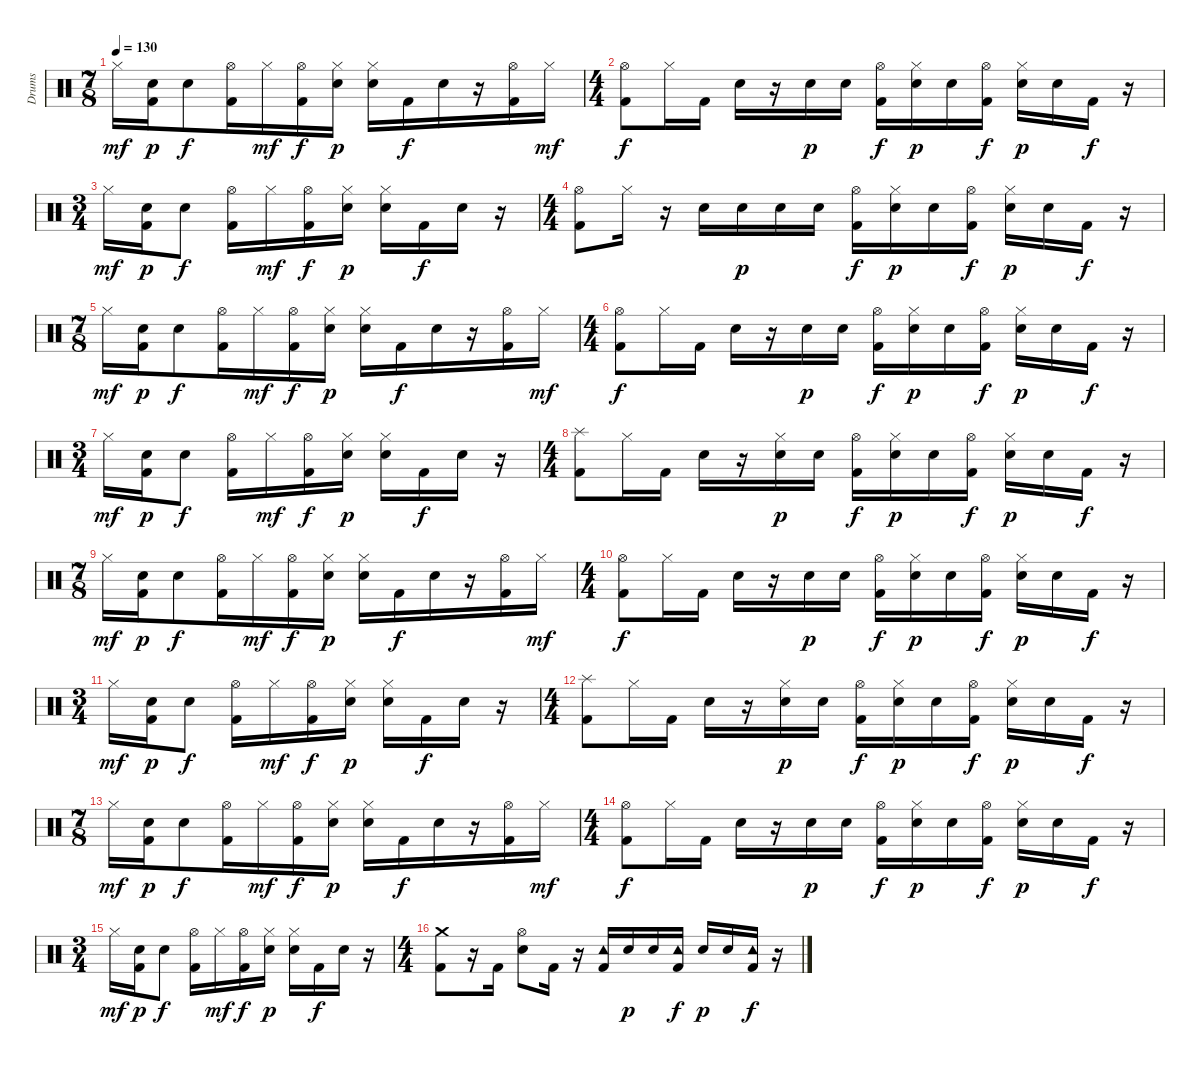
\track ("Drums" "Drums") {instrument percussion}
\staff {score}
\articulation defaults
\ts (7 8)
\tempo 130
\clef neutral
\ks c "Hi-Hat (closed)".16{dy mf}
("Kick (hit) 2" "Electric Snare (hit)").16{dy p} "Electric Snare (hit)".8{dy f} ("Kick (hit) 2" "Hi-Hat (open)").16 "Hi-Hat (closed)".16{dy mf} ("Kick (hit) 2" "Hi-Hat (open)").16{dy f} ("Hi-Hat (closed)" "Electric Snare (hit)").16{dy p} ("Hi-Hat (closed)" "Electric Snare (hit)").16 "Kick (hit) 2".16{dy f} "Electric Snare (hit)".16 r.16 ("Kick (hit) 2" "Hi-Hat (open)").16 "Hi-Hat (closed)".16{dy mf} |
\ts (4 4)
("Hi-Hat (open)" "Kick (hit) 2").8{dy f} "Hi-Hat (closed)".16 "Kick (hit) 2".16 "Electric Snare (hit)".16 r.16 "Electric Snare (hit)".16{dy p} "Electric Snare (hit)".16 ("Kick (hit) 2" "Hi-Hat (open)").16{dy f} ("Hi-Hat (closed)" "Electric Snare (hit)").16{dy p} "Electric Snare (hit)".16 ("Kick (hit) 2" "Hi-Hat (open)").16{dy f} ("Hi-Hat (closed)" "Electric Snare (hit)").16{dy p} "Electric Snare (hit)".16 "Kick (hit) 2".16{dy f} r.16 |
\ts (3 4)
"Hi-Hat (closed)".16{dy mf} ("Kick (hit) 2" "Electric Snare (hit)").16{dy p} "Electric Snare (hit)".8{dy f} ("Kick (hit) 2" "Hi-Hat (open)").16 "Hi-Hat (closed)".16{dy mf} ("Kick (hit) 2" "Hi-Hat (open)").16{dy f} ("Hi-Hat (closed)" "Electric Snare (hit)").16{dy p} ("Hi-Hat (closed)" "Electric Snare (hit)").16 "Kick (hit) 2".16{dy f} "Electric Snare (hit)".16 r.16 |
\ts (4 4)
("Hi-Hat (open)" "Kick (hit) 2").8 "Hi-Hat (closed)".16 r.16 "Electric Snare (hit)".16 "Electric Snare (hit)".16{dy p} "Electric Snare (hit)".16 "Electric Snare (hit)".16 ("Kick (hit) 2" "Hi-Hat (open)").16{dy f} ("Hi-Hat (closed)" "Electric Snare (hit)").16{dy p} "Electric Snare (hit)".16 ("Kick (hit) 2" "Hi-Hat (open)").16{dy f} ("Hi-Hat (closed)" "Electric Snare (hit)").16{dy p} "Electric Snare (hit)".16 "Kick (hit) 2".16{dy f} r.16 |
\ts (7 8)
"Hi-Hat (closed)".16{dy mf} ("Kick (hit) 2" "Electric Snare (hit)").16{dy p} "Electric Snare (hit)".8{dy f} ("Kick (hit) 2" "Hi-Hat (open)").16 "Hi-Hat (closed)".16{dy mf} ("Kick (hit) 2" "Hi-Hat (open)").16{dy f} ("Hi-Hat (closed)" "Electric Snare (hit)").16{dy p} ("Hi-Hat (closed)" "Electric Snare (hit)").16 "Kick (hit) 2".16{dy f} "Electric Snare (hit)".16 r.16 ("Kick (hit) 2" "Hi-Hat (open)").16 "Hi-Hat (closed)".16{dy mf} |
\ts (4 4)
("Hi-Hat (open)" "Kick (hit) 2").8{dy f} "Hi-Hat (closed)".16 "Kick (hit) 2".16 "Electric Snare (hit)".16 r.16 "Electric Snare (hit)".16{dy p} "Electric Snare (hit)".16 ("Kick (hit) 2" "Hi-Hat (open)").16{dy f} ("Hi-Hat (closed)" "Electric Snare (hit)").16{dy p} "Electric Snare (hit)".16 ("Kick (hit) 2" "Hi-Hat (open)").16{dy f} ("Hi-Hat (closed)" "Electric Snare (hit)").16{dy p} "Electric Snare (hit)".16 "Kick (hit) 2".16{dy f} r.16 |
\ts (3 4)
"Hi-Hat (closed)".16{dy mf} ("Kick (hit) 2" "Electric Snare (hit)").16{dy p} "Electric Snare (hit)".8{dy f} ("Kick (hit) 2" "Hi-Hat (open)").16 "Hi-Hat (closed)".16{dy mf} ("Kick (hit) 2" "Hi-Hat (open)").16{dy f} ("Hi-Hat (closed)" "Electric Snare (hit)").16{dy p} ("Hi-Hat (closed)" "Electric Snare (hit)").16 "Kick (hit) 2".16{dy f} "Electric Snare (hit)".16 r.16 |
\ts (4 4)
("Kick (hit) 2" "Splash (hit)").8 "Hi-Hat (closed)".16 "Kick (hit) 2".16 "Electric Snare (hit)".16 r.16 ("Electric Snare (hit)" "Hi-Hat (closed)").16{dy p} "Electric Snare (hit)".16 ("Kick (hit) 2" "Hi-Hat (open)").16{dy f} ("Hi-Hat (closed)" "Electric Snare (hit)").16{dy p} "Electric Snare (hit)".16 ("Kick (hit) 2" "Hi-Hat (open)").16{dy f} ("Hi-Hat (closed)" "Electric Snare (hit)").16{dy p} "Electric Snare (hit)".16 "Kick (hit) 2".16{dy f} r.16 |
\ts (7 8)
"Hi-Hat (closed)".16{dy mf} ("Kick (hit) 2" "Electric Snare (hit)").16{dy p} "Electric Snare (hit)".8{dy f} ("Kick (hit) 2" "Hi-Hat (open)").16 "Hi-Hat (closed)".16{dy mf} ("Kick (hit) 2" "Hi-Hat (open)").16{dy f} ("Hi-Hat (closed)" "Electric Snare (hit)").16{dy p} ("Hi-Hat (closed)" "Electric Snare (hit)").16 "Kick (hit) 2".16{dy f} "Electric Snare (hit)".16 r.16 ("Kick (hit) 2" "Hi-Hat (open)").16 "Hi-Hat (closed)".16{dy mf} |
\ts (4 4)
("Kick (hit) 2" "Hi-Hat (open)").8{dy f} "Hi-Hat (closed)".16 "Kick (hit) 2".16 "Electric Snare (hit)".16 r.16 "Electric Snare (hit)".16{dy p} "Electric Snare (hit)".16 ("Kick (hit) 2" "Hi-Hat (open)").16{dy f} ("Hi-Hat (closed)" "Electric Snare (hit)").16{dy p} "Electric Snare (hit)".16 ("Kick (hit) 2" "Hi-Hat (open)").16{dy f} ("Hi-Hat (closed)" "Electric Snare (hit)").16{dy p} "Electric Snare (hit)".16 "Kick (hit) 2".16{dy f} r.16 |
\ts (3 4)
"Hi-Hat (closed)".16{dy mf} ("Kick (hit) 2" "Electric Snare (hit)").16{dy p} "Electric Snare (hit)".8{dy f} ("Kick (hit) 2" "Hi-Hat (open)").16 "Hi-Hat (closed)".16{dy mf} ("Kick (hit) 2" "Hi-Hat (open)").16{dy f} ("Hi-Hat (closed)" "Electric Snare (hit)").16{dy p} ("Hi-Hat (closed)" "Electric Snare (hit)").16 "Kick (hit) 2".16{dy f} "Electric Snare (hit)".16 r.16 |
\ts (4 4)
("Splash (hit)" "Kick (hit) 2").8 "Hi-Hat (closed)".16 "Kick (hit) 2".16 "Electric Snare (hit)".16 r.16 ("Electric Snare (hit)" "Hi-Hat (closed)").16{dy p} "Electric Snare (hit)".16 ("Kick (hit) 2" "Hi-Hat (open)").16{dy f} ("Hi-Hat (closed)" "Electric Snare (hit)").16{dy p} "Electric Snare (hit)".16 ("Kick (hit) 2" "Hi-Hat (open)").16{dy f} ("Hi-Hat (closed)" "Electric Snare (hit)").16{dy p} "Electric Snare (hit)".16 "Kick (hit) 2".16{dy f} r.16 |
\ts (7 8)
"Hi-Hat (closed)".16{dy mf} ("Kick (hit) 2" "Electric Snare (hit)").16{dy p} "Electric Snare (hit)".8{dy f} ("Kick (hit) 2" "Hi-Hat (open)").16 "Hi-Hat (closed)".16{dy mf} ("Kick (hit) 2" "Hi-Hat (open)").16{dy f} ("Hi-Hat (closed)" "Electric Snare (hit)").16{dy p} ("Hi-Hat (closed)" "Electric Snare (hit)").16 "Kick (hit) 2".16{dy f} "Electric Snare (hit)".16 r.16 ("Kick (hit) 2" "Hi-Hat (open)").16 "Hi-Hat (closed)".16{dy mf} |
\ts (4 4)
("Kick (hit) 2" "Hi-Hat (open)").8{dy f} "Hi-Hat (closed)".16 "Kick (hit) 2".16 "Electric Snare (hit)".16 r.16 "Electric Snare (hit)".16{dy p} "Electric Snare (hit)".16 ("Kick (hit) 2" "Hi-Hat (open)").16{dy f} ("Hi-Hat (closed)" "Electric Snare (hit)").16{dy p} "Electric Snare (hit)".16 ("Kick (hit) 2" "Hi-Hat (open)").16{dy f} ("Hi-Hat (closed)" "Electric Snare (hit)").16{dy p} "Electric Snare (hit)".16 "Kick (hit) 2".16{dy f} r.16 |
\ts (3 4)
"Hi-Hat (closed)".16{dy mf} ("Kick (hit) 2" "Electric Snare (hit)").16{dy p} "Electric Snare (hit)".8{dy f} ("Kick (hit) 2" "Hi-Hat (open)").16 "Hi-Hat (closed)".16{dy mf} ("Kick (hit) 2" "Hi-Hat (open)").16{dy f} ("Hi-Hat (closed)" "Electric Snare (hit)").16{dy p} ("Hi-Hat (closed)" "Electric Snare (hit)").16 "Kick (hit) 2".16{dy f} "Electric Snare (hit)".16 r.16 |
\ts (4 4)
("Kick (hit) 2" "Crash medium (hit)").8 r.16 "Kick (hit) 2".16 ("Electric Snare (hit)" "Hi-Hat (open)").8 "Kick (hit) 2".16 r.16 ("Kick (hit) 2" "Tambourine (hit)").16 "Electric Snare (hit)".16{dy p} "Electric Snare (hit)".16 ("Kick (hit) 2" "Tambourine (hit)").16{dy f} "Electric Snare (hit)".16{dy p} "Electric Snare (hit)".16 ("Kick (hit) 2" "Tambourine (hit)").16{dy f} r.16
